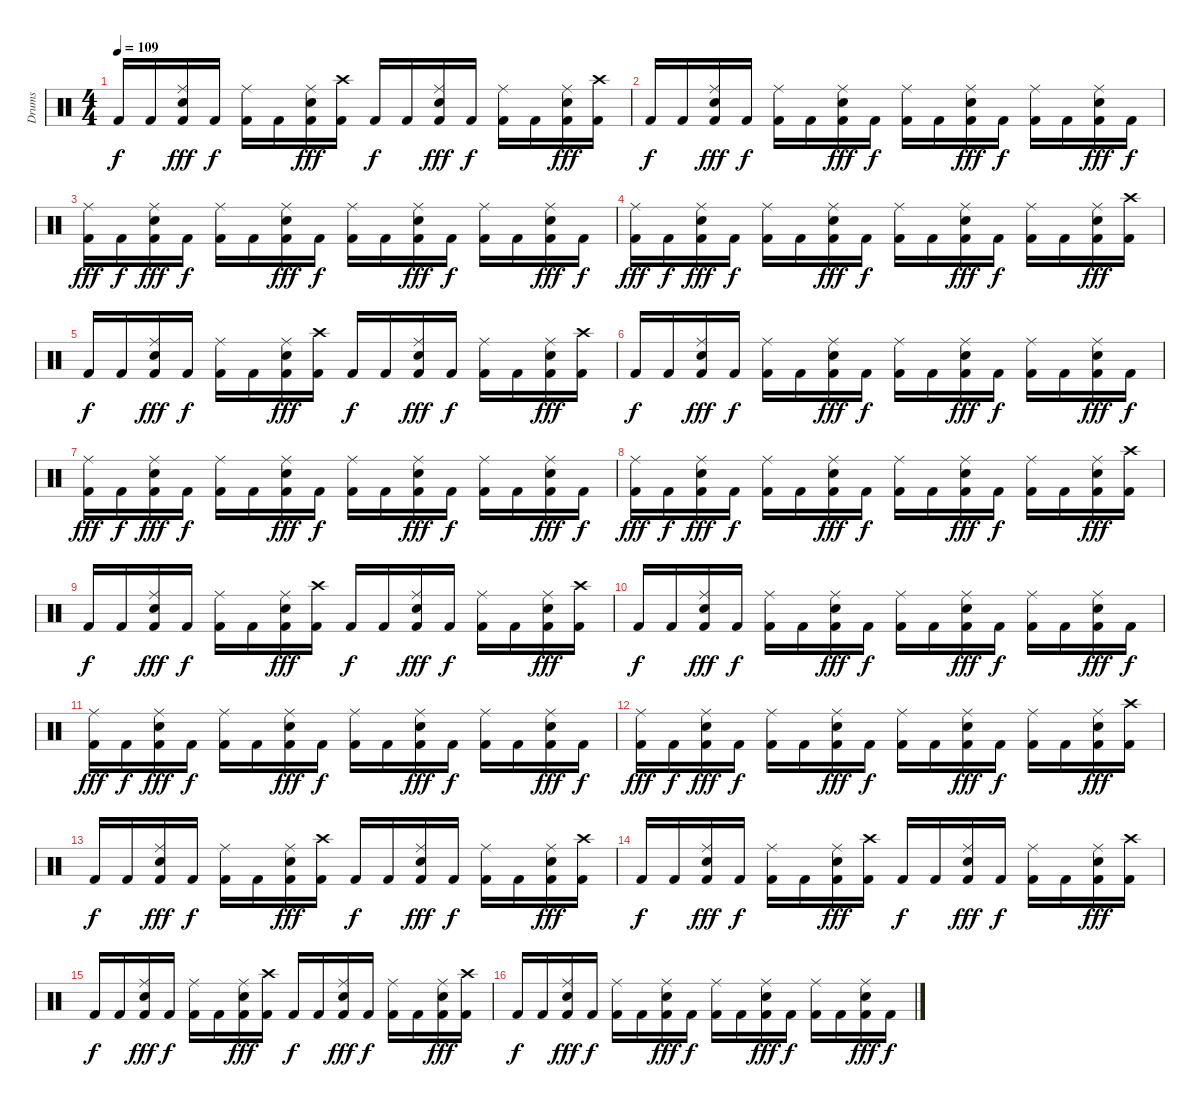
\track ("Drums" "Drums") {instrument percussion}
\staff {score}
\articulation defaults
\ts (4 4)
\tempo 109
\clef neutral
\ks c "Kick (hit) 2".16{dy f} "Kick (hit) 2".16
("Kick (hit) 2" "Ride (middle)" "Snare (hit) 2").16{dy fff} "Kick (hit) 2".16{dy f} ("Ride (middle)" "Kick (hit) 2").16 "Kick (hit) 2".16 ("Kick (hit) 2" "Snare (hit) 2" "Ride (middle)").16{dy fff} ("Kick (hit) 2" "Crash high (hit)").16 "Kick (hit) 2".16{dy f} "Kick (hit) 2".16 ("Kick (hit) 2" "Ride (middle)" "Snare (hit) 2").16{dy fff} "Kick (hit) 2".16{dy f} ("Ride (middle)" "Kick (hit) 2").16 "Kick (hit) 2".16 ("Kick (hit) 2" "Snare (hit) 2" "Ride (middle)").16{dy fff} ("Kick (hit) 2" "Crash high (hit)").16 |
"Kick (hit) 2".16{dy f} "Kick (hit) 2".16 ("Kick (hit) 2" "Snare (hit) 2" "Ride (middle)").16{dy fff} "Kick (hit) 2".16{dy f} ("Kick (hit) 2" "Ride (middle)").16 "Kick (hit) 2".16 ("Kick (hit) 2" "Ride (middle)" "Snare (hit) 2").16{dy fff} "Kick (hit) 2".16{dy f} ("Kick (hit) 2" "Ride (middle)").16 "Kick (hit) 2".16 ("Kick (hit) 2" "Ride (middle)" "Snare (hit) 2").16{dy fff} "Kick (hit) 2".16{dy f} ("Kick (hit) 2" "Ride (middle)").16 "Kick (hit) 2".16 ("Snare (hit) 2" "Ride (middle)" "Kick (hit) 2").16{dy fff} "Kick (hit) 2".16{dy f} |
("Kick (hit) 2" "Ride (middle)").16{dy fff} "Kick (hit) 2".16{dy f} ("Kick (hit) 2" "Snare (hit) 2" "Ride (middle)").16{dy fff} "Kick (hit) 2".16{dy f} ("Kick (hit) 2" "Ride (middle)").16 "Kick (hit) 2".16 ("Snare (hit) 2" "Kick (hit) 2" "Ride (middle)").16{dy fff} "Kick (hit) 2".16{dy f} ("Kick (hit) 2" "Ride (middle)").16 "Kick (hit) 2".16 ("Kick (hit) 2" "Ride (middle)" "Snare (hit) 2").16{dy fff} "Kick (hit) 2".16{dy f} ("Kick (hit) 2" "Ride (middle)").16 "Kick (hit) 2".16 ("Kick (hit) 2" "Snare (hit) 2" "Ride (middle)").16{dy fff} "Kick (hit) 2".16{dy f} |
("Kick (hit) 2" "Ride (middle)").16{dy fff} "Kick (hit) 2".16{dy f} ("Ride (middle)" "Kick (hit) 2" "Snare (hit) 2").16{dy fff} "Kick (hit) 2".16{dy f} ("Kick (hit) 2" "Ride (middle)").16 "Kick (hit) 2".16 ("Snare (hit) 2" "Kick (hit) 2" "Ride (middle)").16{dy fff} "Kick (hit) 2".16{dy f} ("Ride (middle)" "Kick (hit) 2").16 "Kick (hit) 2".16 ("Kick (hit) 2" "Snare (hit) 2" "Ride (middle)").16{dy fff} "Kick (hit) 2".16{dy f} ("Kick (hit) 2" "Ride (middle)").16 "Kick (hit) 2".16 ("Snare (hit) 2" "Ride (middle)" "Kick (hit) 2").16{dy fff} ("Kick (hit) 2" "Crash high (hit)").16 |
"Kick (hit) 2".16{dy f} "Kick (hit) 2".16 ("Snare (hit) 2" "Kick (hit) 2" "Ride (middle)").16{dy fff} "Kick (hit) 2".16{dy f} ("Kick (hit) 2" "Ride (middle)").16 "Kick (hit) 2".16 ("Ride (middle)" "Kick (hit) 2" "Snare (hit) 2").16{dy fff} ("Kick (hit) 2" "Crash high (hit)").16 "Kick (hit) 2".16{dy f} "Kick (hit) 2".16 ("Snare (hit) 2" "Kick (hit) 2" "Ride (middle)").16{dy fff} "Kick (hit) 2".16{dy f} ("Ride (middle)" "Kick (hit) 2").16 "Kick (hit) 2".16 ("Ride (middle)" "Kick (hit) 2" "Snare (hit) 2").16{dy fff} ("Kick (hit) 2" "Crash high (hit)").16 |
"Kick (hit) 2".16{dy f} "Kick (hit) 2".16 ("Kick (hit) 2" "Snare (hit) 2" "Ride (middle)").16{dy fff} "Kick (hit) 2".16{dy f} ("Kick (hit) 2" "Ride (middle)").16 "Kick (hit) 2".16 ("Kick (hit) 2" "Ride (middle)" "Snare (hit) 2").16{dy fff} "Kick (hit) 2".16{dy f} ("Kick (hit) 2" "Ride (middle)").16 "Kick (hit) 2".16 ("Kick (hit) 2" "Ride (middle)" "Snare (hit) 2").16{dy fff} "Kick (hit) 2".16{dy f} ("Ride (middle)" "Kick (hit) 2").16 "Kick (hit) 2".16 ("Snare (hit) 2" "Ride (middle)" "Kick (hit) 2").16{dy fff} "Kick (hit) 2".16{dy f} |
("Kick (hit) 2" "Ride (middle)").16{dy fff} "Kick (hit) 2".16{dy f} ("Kick (hit) 2" "Snare (hit) 2" "Ride (middle)").16{dy fff} "Kick (hit) 2".16{dy f} ("Kick (hit) 2" "Ride (middle)").16 "Kick (hit) 2".16 ("Kick (hit) 2" "Ride (middle)" "Snare (hit) 2").16{dy fff} "Kick (hit) 2".16{dy f} ("Kick (hit) 2" "Ride (middle)").16 "Kick (hit) 2".16 ("Snare (hit) 2" "Kick (hit) 2" "Ride (middle)").16{dy fff} "Kick (hit) 2".16{dy f} ("Ride (middle)" "Kick (hit) 2").16 "Kick (hit) 2".16 ("Snare (hit) 2" "Ride (middle)" "Kick (hit) 2").16{dy fff} "Kick (hit) 2".16{dy f} |
("Kick (hit) 2" "Ride (middle)").16{dy fff} "Kick (hit) 2".16{dy f} ("Kick (hit) 2" "Ride (middle)" "Snare (hit) 2").16{dy fff} "Kick (hit) 2".16{dy f} ("Kick (hit) 2" "Ride (middle)").16 "Kick (hit) 2".16 ("Snare (hit) 2" "Kick (hit) 2" "Ride (middle)").16{dy fff} "Kick (hit) 2".16{dy f} ("Ride (middle)" "Kick (hit) 2").16 "Kick (hit) 2".16 ("Kick (hit) 2" "Snare (hit) 2" "Ride (middle)").16{dy fff} "Kick (hit) 2".16{dy f} ("Kick (hit) 2" "Ride (middle)").16 "Kick (hit) 2".16 ("Snare (hit) 2" "Ride (middle)" "Kick (hit) 2").16{dy fff} ("Kick (hit) 2" "Crash high (hit)").16 |
"Kick (hit) 2".16{dy f} "Kick (hit) 2".16 ("Snare (hit) 2" "Kick (hit) 2" "Ride (middle)").16{dy fff} "Kick (hit) 2".16{dy f} ("Kick (hit) 2" "Ride (middle)").16 "Kick (hit) 2".16 ("Ride (middle)" "Kick (hit) 2" "Snare (hit) 2").16{dy fff} ("Kick (hit) 2" "Crash high (hit)").16 "Kick (hit) 2".16{dy f} "Kick (hit) 2".16 ("Snare (hit) 2" "Kick (hit) 2" "Ride (middle)").16{dy fff} "Kick (hit) 2".16{dy f} ("Ride (middle)" "Kick (hit) 2").16 "Kick (hit) 2".16 ("Ride (middle)" "Kick (hit) 2" "Snare (hit) 2").16{dy fff} ("Kick (hit) 2" "Crash high (hit)").16 |
"Kick (hit) 2".16{dy f} "Kick (hit) 2".16 ("Kick (hit) 2" "Snare (hit) 2" "Ride (middle)").16{dy fff} "Kick (hit) 2".16{dy f} ("Kick (hit) 2" "Ride (middle)").16 "Kick (hit) 2".16 ("Ride (middle)" "Kick (hit) 2" "Snare (hit) 2").16{dy fff} "Kick (hit) 2".16{dy f} ("Kick (hit) 2" "Ride (middle)").16 "Kick (hit) 2".16 ("Kick (hit) 2" "Ride (middle)" "Snare (hit) 2").16{dy fff} "Kick (hit) 2".16{dy f} ("Ride (middle)" "Kick (hit) 2").16 "Kick (hit) 2".16 ("Ride (middle)" "Kick (hit) 2" "Snare (hit) 2").16{dy fff} "Kick (hit) 2".16{dy f} |
("Kick (hit) 2" "Ride (middle)").16{dy fff} "Kick (hit) 2".16{dy f} ("Kick (hit) 2" "Snare (hit) 2" "Ride (middle)").16{dy fff} "Kick (hit) 2".16{dy f} ("Kick (hit) 2" "Ride (middle)").16 "Kick (hit) 2".16 ("Kick (hit) 2" "Ride (middle)" "Snare (hit) 2").16{dy fff} "Kick (hit) 2".16{dy f} ("Kick (hit) 2" "Ride (middle)").16 "Kick (hit) 2".16 ("Kick (hit) 2" "Ride (middle)" "Snare (hit) 2").16{dy fff} "Kick (hit) 2".16{dy f} ("Ride (middle)" "Kick (hit) 2").16 "Kick (hit) 2".16 ("Snare (hit) 2" "Ride (middle)" "Kick (hit) 2").16{dy fff} "Kick (hit) 2".16{dy f} |
("Kick (hit) 2" "Ride (middle)").16{dy fff} "Kick (hit) 2".16{dy f} ("Ride (middle)" "Kick (hit) 2" "Snare (hit) 2").16{dy fff} "Kick (hit) 2".16{dy f} ("Kick (hit) 2" "Ride (middle)").16 "Kick (hit) 2".16 ("Kick (hit) 2" "Ride (middle)" "Snare (hit) 2").16{dy fff} "Kick (hit) 2".16{dy f} ("Kick (hit) 2" "Ride (middle)").16 "Kick (hit) 2".16 ("Snare (hit) 2" "Kick (hit) 2" "Ride (middle)").16{dy fff} "Kick (hit) 2".16{dy f} ("Ride (middle)" "Kick (hit) 2").16 "Kick (hit) 2".16 ("Kick (hit) 2" "Snare (hit) 2" "Ride (middle)").16{dy fff} ("Kick (hit) 2" "Crash high (hit)").16 |
"Kick (hit) 2".16{dy f} "Kick (hit) 2".16 ("Kick (hit) 2" "Ride (middle)" "Snare (hit) 2").16{dy fff} "Kick (hit) 2".16{dy f} ("Ride (middle)" "Kick (hit) 2").16 "Kick (hit) 2".16 ("Kick (hit) 2" "Snare (hit) 2" "Ride (middle)").16{dy fff} ("Crash high (hit)" "Kick (hit) 2").16 "Kick (hit) 2".16{dy f} "Kick (hit) 2".16 ("Kick (hit) 2" "Ride (middle)" "Snare (hit) 2").16{dy fff} "Kick (hit) 2".16{dy f} ("Ride (middle)" "Kick (hit) 2").16 "Kick (hit) 2".16 ("Kick (hit) 2" "Snare (hit) 2" "Ride (middle)").16{dy fff} ("Crash high (hit)" "Kick (hit) 2").16 |
"Kick (hit) 2".16{dy f} "Kick (hit) 2".16 ("Kick (hit) 2" "Ride (middle)" "Snare (hit) 2").16{dy fff} "Kick (hit) 2".16{dy f} ("Ride (middle)" "Kick (hit) 2").16 "Kick (hit) 2".16 ("Kick (hit) 2" "Snare (hit) 2" "Ride (middle)").16{dy fff} ("Kick (hit) 2" "Crash high (hit)").16 "Kick (hit) 2".16{dy f} "Kick (hit) 2".16 ("Kick (hit) 2" "Ride (middle)" "Snare (hit) 2").16{dy fff} "Kick (hit) 2".16{dy f} ("Ride (middle)" "Kick (hit) 2").16 "Kick (hit) 2".16 ("Kick (hit) 2" "Snare (hit) 2" "Ride (middle)").16{dy fff} ("Crash high (hit)" "Kick (hit) 2").16 |
"Kick (hit) 2".16{dy f} "Kick (hit) 2".16 ("Kick (hit) 2" "Ride (middle)" "Snare (hit) 2").16{dy fff} "Kick (hit) 2".16{dy f} ("Ride (middle)" "Kick (hit) 2").16 "Kick (hit) 2".16 ("Kick (hit) 2" "Snare (hit) 2" "Ride (middle)").16{dy fff} ("Kick (hit) 2" "Crash high (hit)").16 "Kick (hit) 2".16{dy f} "Kick (hit) 2".16 ("Kick (hit) 2" "Ride (middle)" "Snare (hit) 2").16{dy fff} "Kick (hit) 2".16{dy f} ("Ride (middle)" "Kick (hit) 2").16 "Kick (hit) 2".16 ("Snare (hit) 2" "Ride (middle)" "Kick (hit) 2").16{dy fff} ("Crash high (hit)" "Kick (hit) 2").16 |
"Kick (hit) 2".16{dy f} "Kick (hit) 2".16 ("Ride (middle)" "Kick (hit) 2" "Snare (hit) 2").16{dy fff} "Kick (hit) 2".16{dy f} ("Kick (hit) 2" "Ride (middle)").16 "Kick (hit) 2".16 ("Kick (hit) 2" "Snare (hit) 2" "Ride (middle)").16{dy fff} "Kick (hit) 2".16{dy f} ("Ride (middle)" "Kick (hit) 2").16 "Kick (hit) 2".16 ("Snare (hit) 2" "Ride (middle)" "Kick (hit) 2").16{dy fff} "Kick (hit) 2".16{dy f} ("Kick (hit) 2" "Ride (middle)").16 "Kick (hit) 2".16 ("Snare (hit) 2" "Ride (middle)" "Kick (hit) 2").16{dy fff} "Kick (hit) 2".16{dy f}
